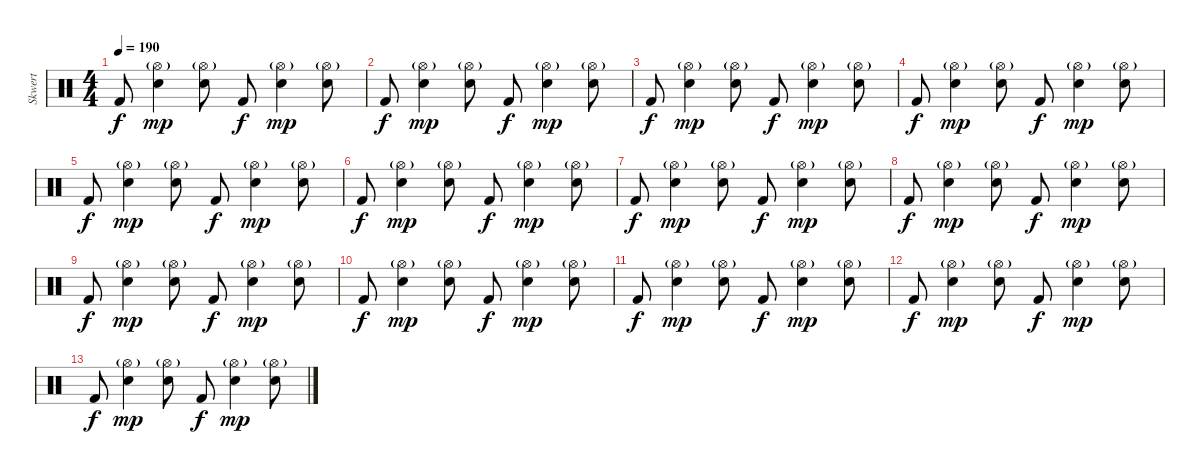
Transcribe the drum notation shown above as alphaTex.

\track ("Skwert" "Skwert") {instrument percussion}
\staff {score}
\articulation defaults
\ts (4 4)
\tempo 190
\clef neutral
\ks c "Kick (hit) 2".8{dy f}
("Hi-Hat (open)"{g} "Electric Snare (hit)").4{dy mp} ("Hi-Hat (open)"{g} "Electric Snare (hit)").8 "Kick (hit) 2".8{dy f} ("Hi-Hat (open)"{g} "Electric Snare (hit)").4{dy mp} ("Hi-Hat (open)"{g} "Electric Snare (hit)").8 |
"Kick (hit) 2".8{dy f} ("Hi-Hat (open)"{g} "Electric Snare (hit)").4{dy mp} ("Hi-Hat (open)"{g} "Electric Snare (hit)").8 "Kick (hit) 2".8{dy f} ("Hi-Hat (open)"{g} "Electric Snare (hit)").4{dy mp} ("Hi-Hat (open)"{g} "Electric Snare (hit)").8 |
"Kick (hit) 2".8{dy f} ("Hi-Hat (open)"{g} "Electric Snare (hit)").4{dy mp} ("Hi-Hat (open)"{g} "Electric Snare (hit)").8 "Kick (hit) 2".8{dy f} ("Hi-Hat (open)"{g} "Electric Snare (hit)").4{dy mp} ("Hi-Hat (open)"{g} "Electric Snare (hit)").8 |
"Kick (hit) 2".8{dy f} ("Hi-Hat (open)"{g} "Electric Snare (hit)").4{dy mp} ("Hi-Hat (open)"{g} "Electric Snare (hit)").8 "Kick (hit) 2".8{dy f} ("Hi-Hat (open)"{g} "Electric Snare (hit)").4{dy mp} ("Hi-Hat (open)"{g} "Electric Snare (hit)").8 |
"Kick (hit) 2".8{dy f} ("Hi-Hat (open)"{g} "Electric Snare (hit)").4{dy mp} ("Hi-Hat (open)"{g} "Electric Snare (hit)").8 "Kick (hit) 2".8{dy f} ("Hi-Hat (open)"{g} "Electric Snare (hit)").4{dy mp} ("Hi-Hat (open)"{g} "Electric Snare (hit)").8 |
"Kick (hit) 2".8{dy f} ("Hi-Hat (open)"{g} "Electric Snare (hit)").4{dy mp} ("Hi-Hat (open)"{g} "Electric Snare (hit)").8 "Kick (hit) 2".8{dy f} ("Hi-Hat (open)"{g} "Electric Snare (hit)").4{dy mp} ("Hi-Hat (open)"{g} "Electric Snare (hit)").8 |
"Kick (hit) 2".8{dy f} ("Hi-Hat (open)"{g} "Electric Snare (hit)").4{dy mp} ("Hi-Hat (open)"{g} "Electric Snare (hit)").8 "Kick (hit) 2".8{dy f} ("Hi-Hat (open)"{g} "Electric Snare (hit)").4{dy mp} ("Hi-Hat (open)"{g} "Electric Snare (hit)").8 |
"Kick (hit) 2".8{dy f} ("Hi-Hat (open)"{g} "Electric Snare (hit)").4{dy mp} ("Hi-Hat (open)"{g} "Electric Snare (hit)").8 "Kick (hit) 2".8{dy f} ("Hi-Hat (open)"{g} "Electric Snare (hit)").4{dy mp} ("Hi-Hat (open)"{g} "Electric Snare (hit)").8 |
"Kick (hit) 2".8{dy f} ("Hi-Hat (open)"{g} "Electric Snare (hit)").4{dy mp} ("Hi-Hat (open)"{g} "Electric Snare (hit)").8 "Kick (hit) 2".8{dy f} ("Hi-Hat (open)"{g} "Electric Snare (hit)").4{dy mp} ("Hi-Hat (open)"{g} "Electric Snare (hit)").8 |
"Kick (hit) 2".8{dy f} ("Hi-Hat (open)"{g} "Electric Snare (hit)").4{dy mp} ("Hi-Hat (open)"{g} "Electric Snare (hit)").8 "Kick (hit) 2".8{dy f} ("Hi-Hat (open)"{g} "Electric Snare (hit)").4{dy mp} ("Hi-Hat (open)"{g} "Electric Snare (hit)").8 |
"Kick (hit) 2".8{dy f} ("Hi-Hat (open)"{g} "Electric Snare (hit)").4{dy mp} ("Hi-Hat (open)"{g} "Electric Snare (hit)").8 "Kick (hit) 2".8{dy f} ("Hi-Hat (open)"{g} "Electric Snare (hit)").4{dy mp} ("Hi-Hat (open)"{g} "Electric Snare (hit)").8 |
"Kick (hit) 2".8{dy f} ("Hi-Hat (open)"{g} "Electric Snare (hit)").4{dy mp} ("Hi-Hat (open)"{g} "Electric Snare (hit)").8 "Kick (hit) 2".8{dy f} ("Hi-Hat (open)"{g} "Electric Snare (hit)").4{dy mp} ("Hi-Hat (open)"{g} "Electric Snare (hit)").8 |
"Kick (hit) 2".8{dy f} ("Hi-Hat (open)"{g} "Electric Snare (hit)").4{dy mp} ("Hi-Hat (open)"{g} "Electric Snare (hit)").8 "Kick (hit) 2".8{dy f} ("Hi-Hat (open)"{g} "Electric Snare (hit)").4{dy mp} ("Hi-Hat (open)"{g} "Electric Snare (hit)").8
